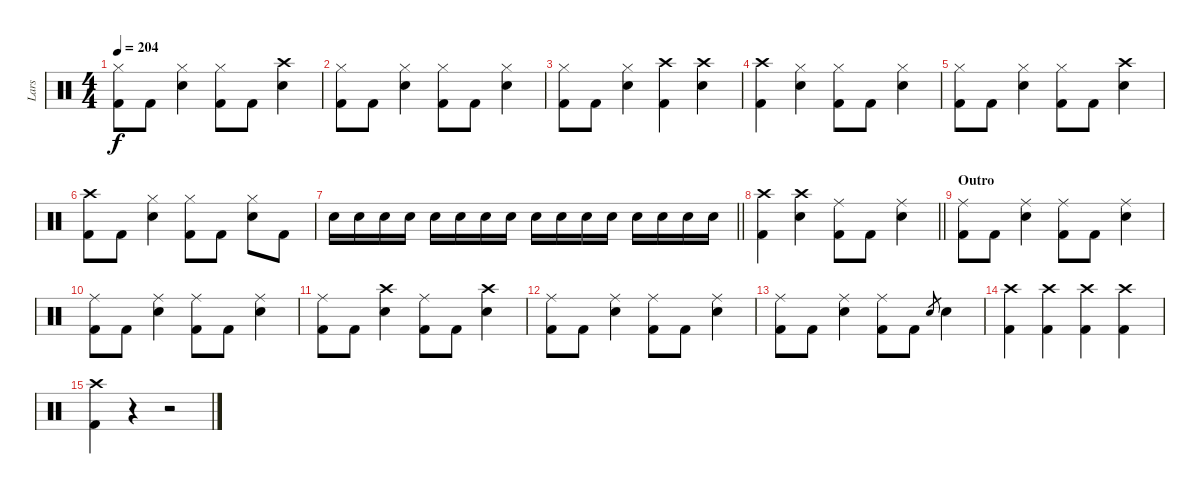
\track ("Lars" "Lars") {instrument percussion}
\staff {score}
\articulation defaults
\ts (4 4)
\tempo 204
\clef neutral
\ks c
("Hi-Hat (closed)" "Kick (hit) 2").8{dy f} "Kick (hit) 2".8 ("Hi-Hat (closed)" "Snare (hit) 2").4 ("Hi-Hat (closed)" "Kick (hit) 2").8 "Kick (hit) 2".8 ("Crash high (hit)" "Snare (hit) 2").4 |
("Hi-Hat (closed)" "Kick (hit) 2").8 "Kick (hit) 2".8 ("Hi-Hat (closed)" "Snare (hit) 2").4 ("Hi-Hat (closed)" "Kick (hit) 2").8 "Kick (hit) 2".8 ("Hi-Hat (closed)" "Snare (hit) 2").4 |
("Hi-Hat (closed)" "Kick (hit) 2").8 "Kick (hit) 2".8 ("Hi-Hat (closed)" "Snare (hit) 2").4 ("Crash high (hit)" "Kick (hit) 2").4 ("Crash high (hit)" "Snare (hit) 2").4 |
("Crash high (hit)" "Kick (hit) 2").4 ("Hi-Hat (closed)" "Snare (hit) 2").4 ("Hi-Hat (closed)" "Kick (hit) 2").8 "Kick (hit) 2".8 ("Hi-Hat (closed)" "Snare (hit) 2").4 |
("Hi-Hat (closed)" "Kick (hit) 2").8 "Kick (hit) 2".8 ("Hi-Hat (closed)" "Snare (hit) 2").4 ("Hi-Hat (closed)" "Kick (hit) 2").8 "Kick (hit) 2".8 ("Crash high (hit)" "Snare (hit) 2").4 |
("Crash high (hit)" "Kick (hit) 2").8 "Kick (hit) 2".8 ("Hi-Hat (closed)" "Snare (hit) 2").4 ("Hi-Hat (closed)" "Kick (hit) 2").8 "Kick (hit) 2".8 ("Hi-Hat (closed)" "Snare (hit) 2").8 "Kick (hit) 2".8 |
\barLineRight lightlight "Snare (hit) 2".16 "Snare (hit) 2".16 "Snare (hit) 2".16 "Snare (hit) 2".16 "Snare (hit) 2".16 "Snare (hit) 2".16 "Snare (hit) 2".16 "Snare (hit) 2".16 "Snare (hit) 2".16 "Snare (hit) 2".16 "Snare (hit) 2".16 "Snare (hit) 2".16 "Snare (hit) 2".16 "Snare (hit) 2".16 "Snare (hit) 2".16 "Snare (hit) 2".16
|
\barLineRight lightlight
("Crash high (hit)" "Kick (hit) 2").4 ("Crash high (hit)" "Snare (hit) 2").4 ("Ride (middle)" "Kick (hit) 2").8 "Kick (hit) 2".8 ("Ride (middle)" "Snare (hit) 2").4 |
\section ("" "Outro")
("Ride (middle)" "Kick (hit) 2").8 "Kick (hit) 2".8 ("Ride (middle)" "Snare (hit) 2").4 ("Ride (middle)" "Kick (hit) 2").8 "Kick (hit) 2".8 ("Ride (middle)" "Snare (hit) 2").4 |
("Ride (middle)" "Kick (hit) 2").8 "Kick (hit) 2".8 ("Ride (middle)" "Snare (hit) 2").4 ("Ride (middle)" "Kick (hit) 2").8 "Kick (hit) 2".8 ("Ride (middle)" "Snare (hit) 2").4 |
("Ride (middle)" "Kick (hit) 2").8 "Kick (hit) 2".8 ("Crash high (hit)" "Snare (hit) 2").4 ("Ride (middle)" "Kick (hit) 2").8 "Kick (hit) 2".8 ("Crash high (hit)" "Snare (hit) 2").4 |
("Ride (middle)" "Kick (hit) 2").8 "Kick (hit) 2".8 ("Ride (middle)" "Snare (hit) 2").4 ("Ride (middle)" "Kick (hit) 2").8 "Kick (hit) 2".8 ("Ride (middle)" "Snare (hit) 2").4 |
("Ride (middle)" "Kick (hit) 2").8 "Kick (hit) 2".8 ("Ride (middle)" "Snare (hit) 2").4 ("Ride (middle)" "Kick (hit) 2").8 "Kick (hit) 2".8 "Snare (hit) 2".8{gr} "Snare (hit) 2".4 |
("Crash high (hit)" "Kick (hit) 2").4 ("Crash high (hit)" "Kick (hit) 2").4 ("Crash high (hit)" "Kick (hit) 2").4 ("Crash high (hit)" "Kick (hit) 2").4 |
("Crash high (hit)" "Kick (hit) 2").4 r.4 r.2
